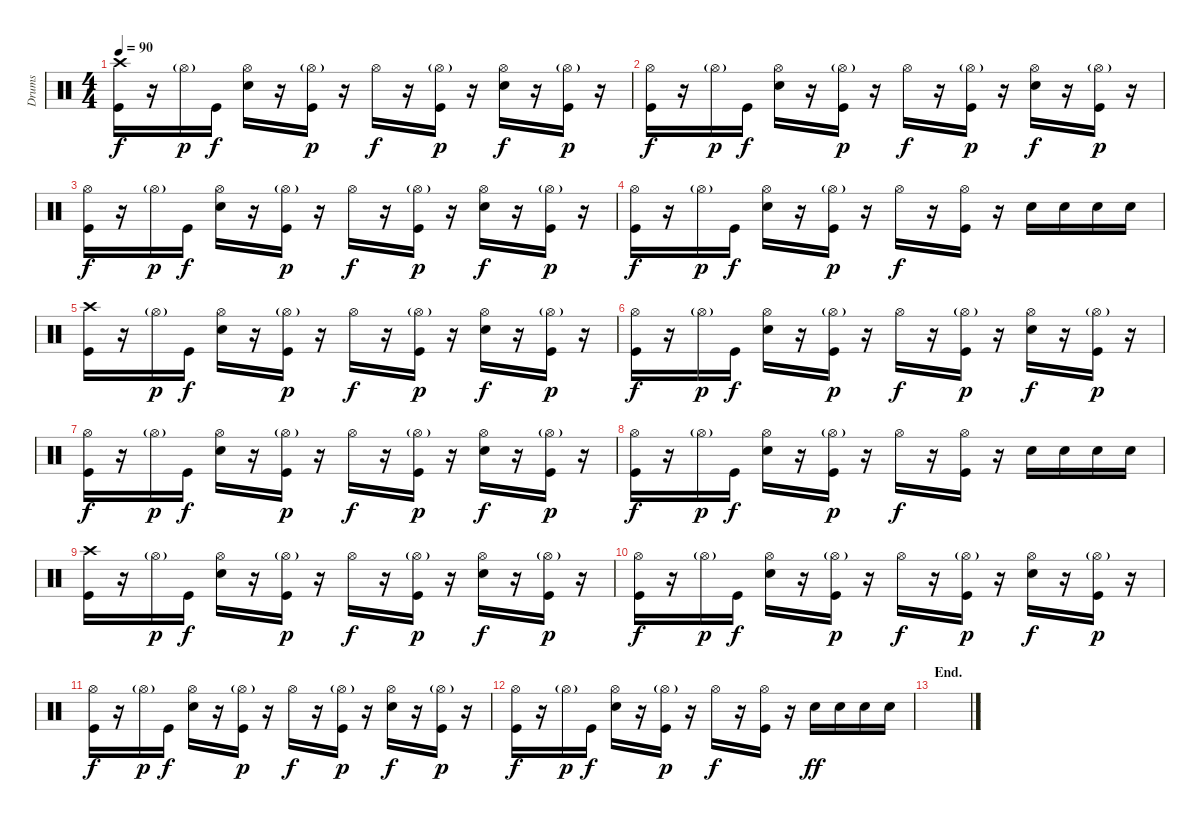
\track ("Drums" "Drums") {instrument percussion}
\staff {score}
\articulation defaults
\ts (4 4)
\tempo 90
\clef neutral
\ks c
("Crash high (hit)" "Kick (hit)").16{dy f} r.16 "Hi-Hat (open)"{g}.16{dy p} "Kick (hit)".16{dy f} ("Hi-Hat (open)" "Snare (hit) 2").16 r.16 ("Hi-Hat (open)"{g} "Kick (hit)").16{dy p} r.16 "Hi-Hat (open)".16{dy f} r.16 ("Hi-Hat (open)"{g} "Kick (hit)").16{dy p} r.16 ("Hi-Hat (open)" "Snare (hit) 2").16{dy f} r.16 ("Hi-Hat (open)"{g} "Kick (hit)").16{dy p} r.16 |
("Hi-Hat (open)" "Kick (hit)").16{dy f} r.16 "Hi-Hat (open)"{g}.16{dy p} "Kick (hit)".16{dy f} ("Hi-Hat (open)" "Snare (hit) 2").16 r.16 ("Hi-Hat (open)"{g} "Kick (hit)").16{dy p} r.16 "Hi-Hat (open)".16{dy f} r.16 ("Hi-Hat (open)"{g} "Kick (hit)").16{dy p} r.16 ("Hi-Hat (open)" "Snare (hit) 2").16{dy f} r.16 ("Hi-Hat (open)"{g} "Kick (hit)").16{dy p} r.16 |
("Hi-Hat (open)" "Kick (hit)").16{dy f} r.16 "Hi-Hat (open)"{g}.16{dy p} "Kick (hit)".16{dy f} ("Hi-Hat (open)" "Snare (hit) 2").16 r.16 ("Hi-Hat (open)"{g} "Kick (hit)").16{dy p} r.16 "Hi-Hat (open)".16{dy f} r.16 ("Hi-Hat (open)"{g} "Kick (hit)").16{dy p} r.16 ("Hi-Hat (open)" "Snare (hit) 2").16{dy f} r.16 ("Hi-Hat (open)"{g} "Kick (hit)").16{dy p} r.16 |
("Hi-Hat (open)" "Kick (hit)").16{dy f} r.16 "Hi-Hat (open)"{g}.16{dy p} "Kick (hit)".16{dy f} ("Hi-Hat (open)" "Snare (hit) 2").16 r.16 ("Hi-Hat (open)"{g} "Kick (hit)").16{dy p} r.16 "Hi-Hat (open)".16{dy f} r.16 ("Hi-Hat (open)" "Kick (hit)").16 r.16 "Snare (hit) 2".16 "Snare (hit) 2".16 "Snare (hit) 2".16 "Snare (hit) 2".16 |
("Crash high (hit)" "Kick (hit)").16 r.16 "Hi-Hat (open)"{g}.16{dy p} "Kick (hit)".16{dy f} ("Hi-Hat (open)" "Snare (hit) 2").16 r.16 ("Hi-Hat (open)"{g} "Kick (hit)").16{dy p} r.16 "Hi-Hat (open)".16{dy f} r.16 ("Hi-Hat (open)"{g} "Kick (hit)").16{dy p} r.16 ("Hi-Hat (open)" "Snare (hit) 2").16{dy f} r.16 ("Hi-Hat (open)"{g} "Kick (hit)").16{dy p} r.16 |
("Hi-Hat (open)" "Kick (hit)").16{dy f} r.16 "Hi-Hat (open)"{g}.16{dy p} "Kick (hit)".16{dy f} ("Hi-Hat (open)" "Snare (hit) 2").16 r.16 ("Hi-Hat (open)"{g} "Kick (hit)").16{dy p} r.16 "Hi-Hat (open)".16{dy f} r.16 ("Hi-Hat (open)"{g} "Kick (hit)").16{dy p} r.16 ("Hi-Hat (open)" "Snare (hit) 2").16{dy f} r.16 ("Hi-Hat (open)"{g} "Kick (hit)").16{dy p} r.16 |
("Hi-Hat (open)" "Kick (hit)").16{dy f} r.16 "Hi-Hat (open)"{g}.16{dy p} "Kick (hit)".16{dy f} ("Hi-Hat (open)" "Snare (hit) 2").16 r.16 ("Hi-Hat (open)"{g} "Kick (hit)").16{dy p} r.16 "Hi-Hat (open)".16{dy f} r.16 ("Hi-Hat (open)"{g} "Kick (hit)").16{dy p} r.16 ("Hi-Hat (open)" "Snare (hit) 2").16{dy f} r.16 ("Hi-Hat (open)"{g} "Kick (hit)").16{dy p} r.16 |
("Hi-Hat (open)" "Kick (hit)").16{dy f} r.16 "Hi-Hat (open)"{g}.16{dy p} "Kick (hit)".16{dy f} ("Hi-Hat (open)" "Snare (hit) 2").16 r.16 ("Hi-Hat (open)"{g} "Kick (hit)").16{dy p} r.16 "Hi-Hat (open)".16{dy f} r.16 ("Hi-Hat (open)" "Kick (hit)").16 r.16 "Snare (hit) 2".16 "Snare (hit) 2".16 "Snare (hit) 2".16 "Snare (hit) 2".16 |
("Crash high (hit)" "Kick (hit)").16 r.16 "Hi-Hat (open)"{g}.16{dy p} "Kick (hit)".16{dy f} ("Hi-Hat (open)" "Snare (hit) 2").16 r.16 ("Hi-Hat (open)"{g} "Kick (hit)").16{dy p} r.16 "Hi-Hat (open)".16{dy f} r.16 ("Hi-Hat (open)"{g} "Kick (hit)").16{dy p} r.16 ("Hi-Hat (open)" "Snare (hit) 2").16{dy f} r.16 ("Hi-Hat (open)"{g} "Kick (hit)").16{dy p} r.16 |
("Hi-Hat (open)" "Kick (hit)").16{dy f} r.16 "Hi-Hat (open)"{g}.16{dy p} "Kick (hit)".16{dy f} ("Hi-Hat (open)" "Snare (hit) 2").16 r.16 ("Hi-Hat (open)"{g} "Kick (hit)").16{dy p} r.16 "Hi-Hat (open)".16{dy f} r.16 ("Hi-Hat (open)"{g} "Kick (hit)").16{dy p} r.16 ("Hi-Hat (open)" "Snare (hit) 2").16{dy f} r.16 ("Hi-Hat (open)"{g} "Kick (hit)").16{dy p} r.16 |
("Hi-Hat (open)" "Kick (hit)").16{dy f} r.16 "Hi-Hat (open)"{g}.16{dy p} "Kick (hit)".16{dy f} ("Hi-Hat (open)" "Snare (hit) 2").16 r.16 ("Hi-Hat (open)"{g} "Kick (hit)").16{dy p} r.16 "Hi-Hat (open)".16{dy f} r.16 ("Hi-Hat (open)"{g} "Kick (hit)").16{dy p} r.16 ("Hi-Hat (open)" "Snare (hit) 2").16{dy f} r.16 ("Hi-Hat (open)"{g} "Kick (hit)").16{dy p} r.16 |
("Hi-Hat (open)" "Kick (hit)").16{dy f} r.16 "Hi-Hat (open)"{g}.16{dy p} "Kick (hit)".16{dy f} ("Hi-Hat (open)" "Snare (hit) 2").16 r.16 ("Hi-Hat (open)"{g} "Kick (hit)").16{dy p} r.16 "Hi-Hat (open)".16{dy f} r.16 ("Hi-Hat (open)" "Kick (hit)").16 r.16 "Snare (hit) 2".16{dy ff} "Snare (hit) 2".16 "Snare (hit) 2".16 "Snare (hit) 2".16 |
\section ("" "End.")
